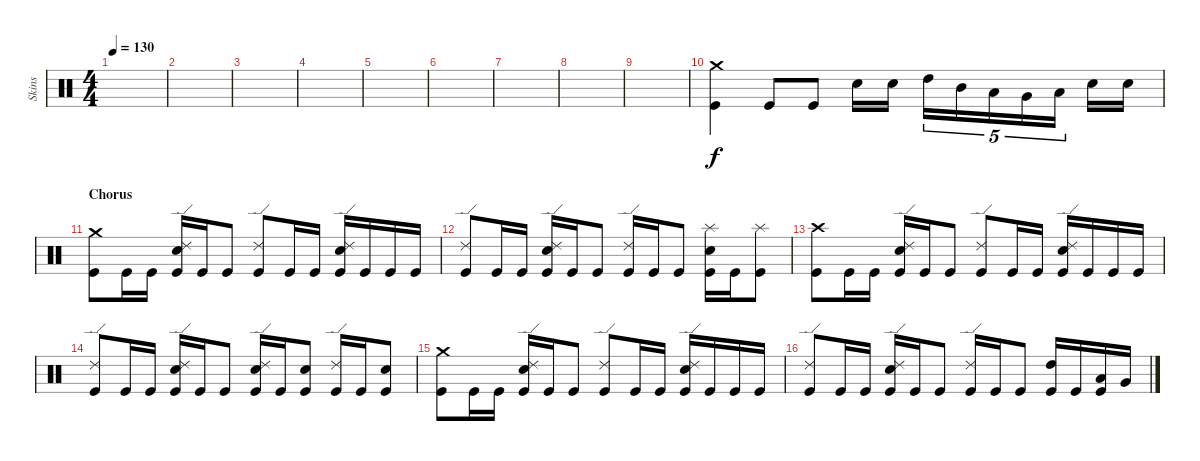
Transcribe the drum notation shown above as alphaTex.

\track ("Skins" "Skins") {instrument percussion}
\staff {score}
\articulation defaults
\ts (4 4)
\tempo 130
\clef neutral
\ks c
|
|
|
|
|
|
|
|
|
("Crash medium (hit)" "Kick (hit)").4 "Kick (hit)".8 "Kick (hit)".8 "Electric Snare (hit)".16 "Electric Snare (hit)".16 "High Tom (hit)".16{tu (5 4)} "Mid Tom (hit)".16{tu (5 4)} "Low Tom (hit)".16{tu (5 4)} "Very Low Tom (hit)".16{tu (5 4)} "Low Floor Tom (hit)".16{tu (5 4)} "Electric Snare (hit)".16 "Electric Snare (hit)".16 |
\section ("" "Chorus")
("Crash medium (hit)" "Kick (hit)").8 "Kick (hit)".16 "Kick (hit)".16 ("Ride (edge) 2" "Electric Snare (hit)" "Kick (hit)").16 "Kick (hit)".16 "Kick (hit)".8 ("Ride (edge) 2" "Kick (hit)").8 "Kick (hit)".16 "Kick (hit)".16 ("Ride (edge) 2" "Electric Snare (hit)" "Kick (hit)").16 "Kick (hit)".16 "Kick (hit)".16 "Kick (hit)".16 |
("Ride (edge) 2" "Kick (hit)").8 "Kick (hit)".16 "Kick (hit)".16 ("Ride (edge) 2" "Electric Snare (hit)" "Kick (hit)").16 "Kick (hit)".16 "Kick (hit)".8 ("Ride (edge) 2" "Kick (hit)").16 "Kick (hit)".16 "Kick (hit)".8 ("Splash (hit)" "Electric Snare (hit)" "Kick (hit)").16 "Kick (hit)".16 ("Splash (hit)" "Kick (hit)").8 |
("Crash high (hit)" "Kick (hit)").8 "Kick (hit)".16 "Kick (hit)".16 ("Ride (edge) 2" "Electric Snare (hit)" "Kick (hit)").16 "Kick (hit)".16 "Kick (hit)".8 ("Ride (edge) 2" "Kick (hit)").8 "Kick (hit)".16 "Kick (hit)".16 ("Ride (edge) 2" "Electric Snare (hit)" "Kick (hit)").16 "Kick (hit)".16 "Kick (hit)".16 "Kick (hit)".16 |
("Ride (edge) 2" "Kick (hit)").8 "Kick (hit)".16 "Kick (hit)".16 ("Ride (edge) 2" "Electric Snare (hit)" "Kick (hit)").16 "Kick (hit)".16 "Kick (hit)".8 ("Ride (edge) 2" "Electric Snare (hit)" "Kick (hit)").16 "Kick (hit)".16 ("Electric Snare (hit)" "Kick (hit)").8 ("Ride (edge) 2" "Kick (hit)").16 "Kick (hit)".16 ("Electric Snare (hit)" "Kick (hit)").8 |
("Crash medium (hit)" "Kick (hit)").8 "Kick (hit)".16 "Kick (hit)".16 ("Ride (edge) 2" "Electric Snare (hit)" "Kick (hit)").16 "Kick (hit)".16 "Kick (hit)".8 ("Ride (edge) 2" "Kick (hit)").8 "Kick (hit)".16 "Kick (hit)".16 ("Ride (edge) 2" "Electric Snare (hit)" "Kick (hit)").16 "Kick (hit)".16 "Kick (hit)".16 "Kick (hit)".16 |
("Ride (edge) 2" "Kick (hit)").8 "Kick (hit)".16 "Kick (hit)".16 ("Ride (edge) 2" "Electric Snare (hit)" "Kick (hit)").16 "Kick (hit)".16 "Kick (hit)".8 ("Ride (edge) 2" "Kick (hit)").16 "Kick (hit)".16 "Kick (hit)".8 ("High Tom (hit)" "Kick (hit)").16 "Kick (hit)".16 ("Low Tom (hit)" "Kick (hit)").16 "Very Low Tom (hit)".16
